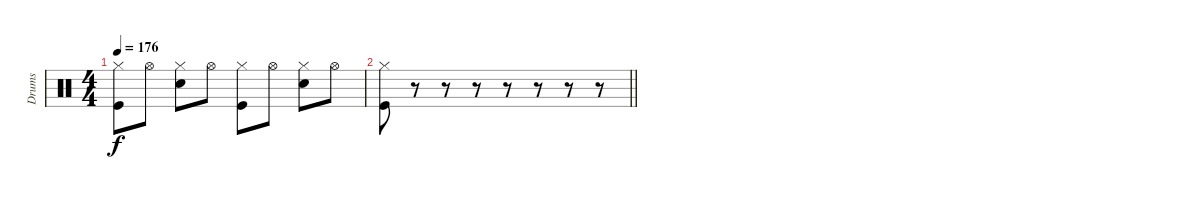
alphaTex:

\track ("Drums" "Drums") {instrument percussion}
\staff {score}
\articulation defaults
\ts (4 4)
\tempo 176
\clef neutral
\ks c
("Hi-Hat (closed)" "Kick (hit)").8{dy f} "Hi-Hat (open)".8 ("Hi-Hat (closed)" "Electric Snare (hit)").8 "Hi-Hat (open)".8 ("Hi-Hat (closed)" "Kick (hit)").8 "Hi-Hat (open)".8 ("Hi-Hat (closed)" "Electric Snare (hit)").8 "Hi-Hat (open)".8 |
\barLineRight lightlight
("Hi-Hat (closed)" "Kick (hit)").8 r.8 r.8 r.8 r.8 r.8 r.8 r.8
